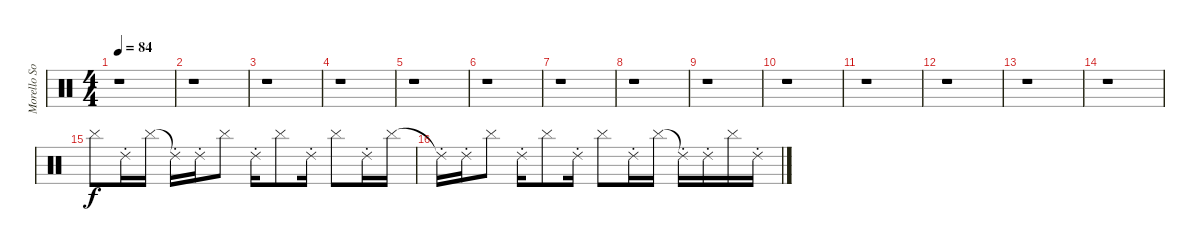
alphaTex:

\track ("Morello Solo" "Morello So") {instrument percussion}
\staff {score}
\articulation defaults
\ts (4 4)
\tempo 84
\clef neutral
\ks c
r.1{dy f} |
r.1 |
r.1 |
r.1 |
r.1 |
r.1 |
r.1 |
r.1 |
r.1 |
r.1 |
r.1 |
r.1 |
r.1 |
r.1 |
"Cymbal (hit)".8 "Ride (choke) 2".16 "Cymbal (hit)".16 "Ride (choke) 2"{t}.16 "Ride (choke) 2".16 "Cymbal (hit)".8 "Ride (choke) 2".16 "Cymbal (hit)".8 "Ride (choke) 2".16 "Cymbal (hit)".8 "Ride (choke) 2".16 "Cymbal (hit)".16 |
"Ride (choke) 2"{t}.16 "Ride (choke) 2".16 "Cymbal (hit)".8 "Ride (choke) 2".16 "Cymbal (hit)".8 "Ride (choke) 2".16 "Cymbal (hit)".8 "Ride (choke) 2".16 "Cymbal (hit)".16 "Ride (choke) 2"{t}.16 "Ride (choke) 2".16 "Cymbal (hit)".16 "Ride (choke) 2".16
